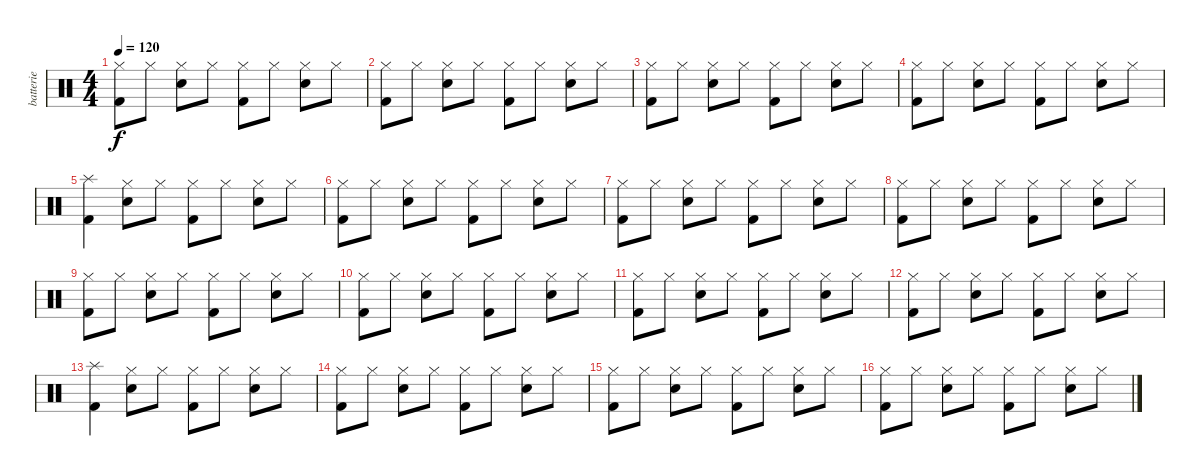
\track ("batterie" "batterie") {instrument percussion}
\staff {score}
\articulation defaults
\ts (4 4)
\tempo 120
\clef neutral
\ks c
("Kick (hit) 2" "Hi-Hat (closed)").8{dy f} "Hi-Hat (closed)".8 ("Snare (hit) 2" "Hi-Hat (closed)").8 "Hi-Hat (closed)".8 ("Kick (hit) 2" "Hi-Hat (closed)").8 "Hi-Hat (closed)".8 ("Snare (hit) 2" "Hi-Hat (closed)").8 "Hi-Hat (closed)".8 |
("Kick (hit) 2" "Hi-Hat (closed)").8 "Hi-Hat (closed)".8 ("Snare (hit) 2" "Hi-Hat (closed)").8 "Hi-Hat (closed)".8 ("Kick (hit) 2" "Hi-Hat (closed)").8 "Hi-Hat (closed)".8 ("Snare (hit) 2" "Hi-Hat (closed)").8 "Hi-Hat (closed)".8 |
("Kick (hit) 2" "Hi-Hat (closed)").8 "Hi-Hat (closed)".8 ("Snare (hit) 2" "Hi-Hat (closed)").8 "Hi-Hat (closed)".8 ("Kick (hit) 2" "Hi-Hat (closed)").8 "Hi-Hat (closed)".8 ("Snare (hit) 2" "Hi-Hat (closed)").8 "Hi-Hat (closed)".8 |
("Kick (hit) 2" "Hi-Hat (closed)").8 "Hi-Hat (closed)".8 ("Snare (hit) 2" "Hi-Hat (closed)").8 "Hi-Hat (closed)".8 ("Kick (hit) 2" "Hi-Hat (closed)").8 "Hi-Hat (closed)".8 ("Snare (hit) 2" "Hi-Hat (closed)").8 "Hi-Hat (closed)".8 |
("Kick (hit) 2" "Splash (hit)").4 ("Snare (hit) 2" "Hi-Hat (closed)").8 "Hi-Hat (closed)".8 ("Kick (hit) 2" "Hi-Hat (closed)").8 "Hi-Hat (closed)".8 ("Snare (hit) 2" "Hi-Hat (closed)").8 "Hi-Hat (closed)".8 |
("Kick (hit) 2" "Hi-Hat (closed)").8 "Hi-Hat (closed)".8 ("Snare (hit) 2" "Hi-Hat (closed)").8 "Hi-Hat (closed)".8 ("Kick (hit) 2" "Hi-Hat (closed)").8 "Hi-Hat (closed)".8 ("Snare (hit) 2" "Hi-Hat (closed)").8 "Hi-Hat (closed)".8 |
("Kick (hit) 2" "Hi-Hat (closed)").8 "Hi-Hat (closed)".8 ("Snare (hit) 2" "Hi-Hat (closed)").8 "Hi-Hat (closed)".8 ("Kick (hit) 2" "Hi-Hat (closed)").8 "Hi-Hat (closed)".8 ("Snare (hit) 2" "Hi-Hat (closed)").8 "Hi-Hat (closed)".8 |
("Kick (hit) 2" "Hi-Hat (closed)").8 "Hi-Hat (closed)".8 ("Snare (hit) 2" "Hi-Hat (closed)").8 "Hi-Hat (closed)".8 ("Kick (hit) 2" "Hi-Hat (closed)").8 "Hi-Hat (closed)".8 ("Snare (hit) 2" "Hi-Hat (closed)").8 "Hi-Hat (closed)".8 |
("Kick (hit) 2" "Hi-Hat (closed)").8 "Hi-Hat (closed)".8 ("Snare (hit) 2" "Hi-Hat (closed)").8 "Hi-Hat (closed)".8 ("Kick (hit) 2" "Hi-Hat (closed)").8 "Hi-Hat (closed)".8 ("Snare (hit) 2" "Hi-Hat (closed)").8 "Hi-Hat (closed)".8 |
("Kick (hit) 2" "Hi-Hat (closed)").8 "Hi-Hat (closed)".8 ("Snare (hit) 2" "Hi-Hat (closed)").8 "Hi-Hat (closed)".8 ("Kick (hit) 2" "Hi-Hat (closed)").8 "Hi-Hat (closed)".8 ("Snare (hit) 2" "Hi-Hat (closed)").8 "Hi-Hat (closed)".8 |
("Kick (hit) 2" "Hi-Hat (closed)").8 "Hi-Hat (closed)".8 ("Snare (hit) 2" "Hi-Hat (closed)").8 "Hi-Hat (closed)".8 ("Kick (hit) 2" "Hi-Hat (closed)").8 "Hi-Hat (closed)".8 ("Snare (hit) 2" "Hi-Hat (closed)").8 "Hi-Hat (closed)".8 |
("Kick (hit) 2" "Hi-Hat (closed)").8 "Hi-Hat (closed)".8 ("Snare (hit) 2" "Hi-Hat (closed)").8 "Hi-Hat (closed)".8 ("Kick (hit) 2" "Hi-Hat (closed)").8 "Hi-Hat (closed)".8 ("Snare (hit) 2" "Hi-Hat (closed)").8 "Hi-Hat (closed)".8 |
("Kick (hit) 2" "Splash (hit)").4 ("Snare (hit) 2" "Hi-Hat (closed)").8 "Hi-Hat (closed)".8 ("Kick (hit) 2" "Hi-Hat (closed)").8 "Hi-Hat (closed)".8 ("Snare (hit) 2" "Hi-Hat (closed)").8 "Hi-Hat (closed)".8 |
("Kick (hit) 2" "Hi-Hat (closed)").8 "Hi-Hat (closed)".8 ("Snare (hit) 2" "Hi-Hat (closed)").8 "Hi-Hat (closed)".8 ("Kick (hit) 2" "Hi-Hat (closed)").8 "Hi-Hat (closed)".8 ("Snare (hit) 2" "Hi-Hat (closed)").8 "Hi-Hat (closed)".8 |
("Kick (hit) 2" "Hi-Hat (closed)").8 "Hi-Hat (closed)".8 ("Snare (hit) 2" "Hi-Hat (closed)").8 "Hi-Hat (closed)".8 ("Kick (hit) 2" "Hi-Hat (closed)").8 "Hi-Hat (closed)".8 ("Snare (hit) 2" "Hi-Hat (closed)").8 "Hi-Hat (closed)".8 |
("Kick (hit) 2" "Hi-Hat (closed)").8 "Hi-Hat (closed)".8 ("Snare (hit) 2" "Hi-Hat (closed)").8 "Hi-Hat (closed)".8 ("Kick (hit) 2" "Hi-Hat (closed)").8 "Hi-Hat (closed)".8 ("Snare (hit) 2" "Hi-Hat (closed)").8 "Hi-Hat (closed)".8
